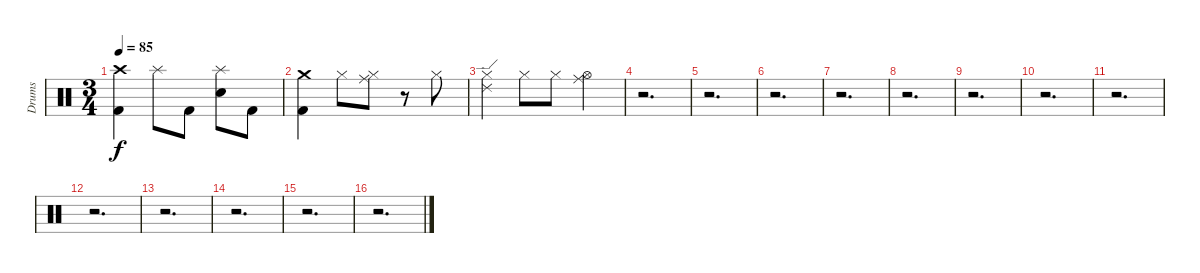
\track ("Drums" "Drums") {instrument percussion}
\staff {score}
\articulation defaults
\ts (3 4)
\tempo 85
\clef neutral
\ks c
("Kick (hit) 2" "Crash high (hit)").4{dy f} "Splash (hit)".8 "Kick (hit) 2".8 ("Snare (hit) 2" "Splash (hit)").8 "Kick (hit) 2".8 |
("Kick (hit) 2" "Crash medium (hit)").4 "Hi-Hat (closed)".8 ("Hi-Hat (closed)" "Ride (middle)").8 r.8 "Hi-Hat (closed)".8 |
("Hi-Hat (closed)" "Ride (edge) 2").4 "Hi-Hat (closed)".8 "Hi-Hat (closed)".8 ("Hi-Hat (open)" "Ride (middle)").4 |
r.2{d} |
r.2{d} |
r.2{d} |
r.2{d} |
r.2{d} |
r.2{d} |
r.2{d} |
r.2{d} |
r.2{d} |
r.2{d} |
r.2{d} |
r.2{d} |
r.2{d}
